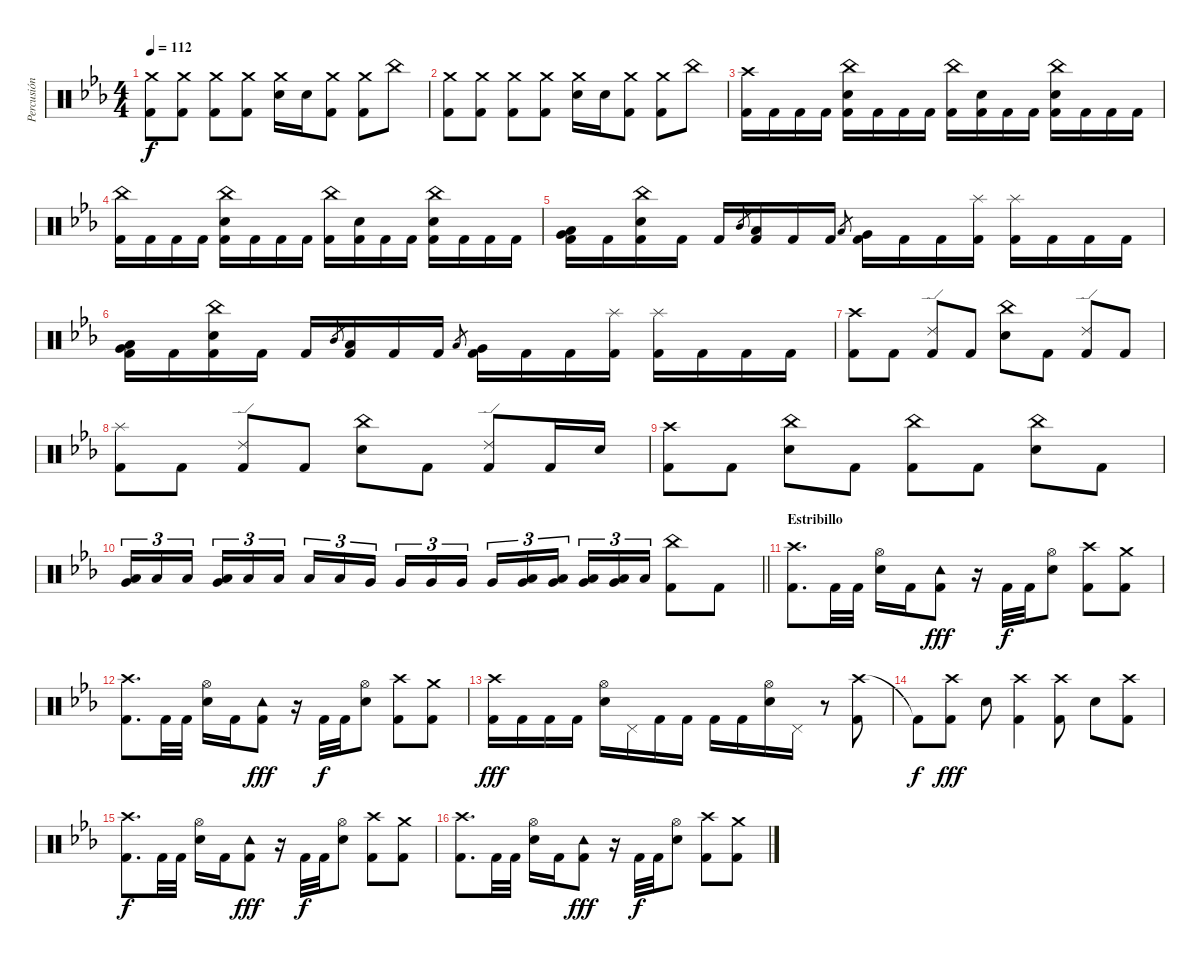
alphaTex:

\track ("Percusión" "Percusión") {instrument percussion}
\staff {score}
\articulation defaults
\ts (4 4)
\tempo 112
\clef neutral
\ks cminor
("Crash medium (hit)" "Kick (hit) 2").8{dy f} ("Crash medium (hit)" "Kick (hit) 2").8 ("Crash medium (hit)" "Kick (hit) 2").8 ("Crash medium (hit)" "Kick (hit) 2").8 ("Crash medium (hit)" "Snare (hit) 2").16 "Snare (hit) 2".16 ("Crash medium (hit)" "Kick (hit) 2").8 ("Crash medium (hit)" "Kick (hit) 2").8 "China (hit)".8 |
("Crash medium (hit)" "Kick (hit) 2").8 ("Crash medium (hit)" "Kick (hit) 2").8 ("Crash medium (hit)" "Kick (hit) 2").8 ("Crash medium (hit)" "Kick (hit) 2").8 ("Crash medium (hit)" "Snare (hit) 2").16 "Snare (hit) 2".16 ("Crash medium (hit)" "Kick (hit) 2").8 ("Crash medium (hit)" "Kick (hit) 2").8 "China (hit)".8 |
("Crash high (hit)" "Kick (hit) 2").16 "Kick (hit) 2".16 "Kick (hit) 2".16 "Kick (hit) 2".16 ("China (hit)" "Snare (hit) 2" "Kick (hit) 2").16 "Kick (hit) 2".16 "Kick (hit) 2".16 "Kick (hit) 2".16 ("China (hit)" "Kick (hit) 2").16 ("Snare (hit) 2" "Kick (hit) 2").16 "Kick (hit) 2".16 "Kick (hit) 2".16 ("China (hit)" "Snare (hit) 2" "Kick (hit) 2").16 "Kick (hit) 2".16 "Kick (hit) 2".16 "Kick (hit) 2".16 |
("China (hit)" "Kick (hit) 2").16 "Kick (hit) 2".16 "Kick (hit) 2".16 "Kick (hit) 2".16 ("China (hit)" "Snare (hit) 2" "Kick (hit) 2").16 "Kick (hit) 2".16 "Kick (hit) 2".16 "Kick (hit) 2".16 ("China (hit)" "Kick (hit) 2").16 ("Snare (hit) 2" "Kick (hit) 2").16 "Kick (hit) 2".16 "Kick (hit) 2".16 ("China (hit)" "Snare (hit) 2" "Kick (hit) 2").16 "Kick (hit) 2".16 "Kick (hit) 2".16 "Kick (hit) 2".16 |
("Low Floor Tom (hit)" "Very Low Tom (hit)" "Kick (hit) 2").16 "Kick (hit) 2".16 ("China (hit)" "Snare (hit) 2" "Kick (hit) 2").16 "Kick (hit) 2".16 "Kick (hit) 2".16 "Mid Tom (hit)".8{gr} ("Low Tom (hit)" "Kick (hit) 2").16 "Kick (hit) 2".16 "Kick (hit) 2".16 "Low Tom (hit)".8{gr} ("Very Low Tom (hit)" "Kick (hit) 2").16 "Kick (hit) 2".16 "Kick (hit) 2".16 ("Splash (hit)" "Kick (hit) 2").16 ("Splash (hit)" "Kick (hit) 2").16 "Kick (hit) 2".16 "Kick (hit) 2".16 "Kick (hit) 2".16 |
("Low Floor Tom (hit)" "Very Low Tom (hit)" "Kick (hit) 2").16 "Kick (hit) 2".16 ("China (hit)" "Snare (hit) 2" "Kick (hit) 2").16 "Kick (hit) 2".16 "Kick (hit) 2".16 "Mid Tom (hit)".8{gr} ("Low Tom (hit)" "Kick (hit) 2").16 "Kick (hit) 2".16 "Kick (hit) 2".16 "Low Tom (hit)".8{gr} ("Very Low Tom (hit)" "Kick (hit) 2").16 "Kick (hit) 2".16 "Kick (hit) 2".16 ("Splash (hit)" "Kick (hit) 2").16 ("Splash (hit)" "Kick (hit) 2").16 "Kick (hit) 2".16 "Kick (hit) 2".16 "Kick (hit) 2".16 |
("Crash high (hit)" "Kick (hit) 2").8 "Kick (hit) 2".8 ("Ride (edge) 2" "Kick (hit) 2").8 "Kick (hit) 2".8 ("China (hit)" "Snare (hit) 2").8 "Kick (hit) 2".8 ("Ride (edge) 2" "Kick (hit) 2").8 "Kick (hit) 2".8 |
("Splash (hit)" "Kick (hit) 2").8 "Kick (hit) 2".8 ("Ride (edge) 2" "Kick (hit) 2").8 "Kick (hit) 2".8 ("China (hit)" "Snare (hit) 2").8 "Kick (hit) 2".8 ("Ride (edge) 2" "Kick (hit) 2").8 "Kick (hit) 2".16 "Snare (hit) 2".16 |
("Crash high (hit)" "Kick (hit) 2").8 "Kick (hit) 2".8 ("China (hit)" "Snare (hit) 2").8 "Kick (hit) 2".8 ("China (hit)" "Kick (hit) 2").8 "Kick (hit) 2".8 ("China (hit)" "Snare (hit) 2").8 "Kick (hit) 2".8 |
\barLineRight lightlight
("Very Low Tom (hit)" "Low Tom (hit)").16{tu (3 2)} "Low Tom (hit)".16{tu (3 2)} "Low Tom (hit)".16{tu (3 2) beam splitsecondary} ("Very Low Tom (hit)" "Low Tom (hit)").16{tu (3 2)} "Low Tom (hit)".16{tu (3 2)} "Low Tom (hit)".16{tu (3 2)} "Low Tom (hit)".16{tu (3 2)} "Low Tom (hit)".16{tu (3 2)} "Very Low Tom (hit)".16{tu (3 2) beam splitsecondary} "Very Low Tom (hit)".16{tu (3 2)} "Very Low Tom (hit)".16{tu (3 2)} "Very Low Tom (hit)".16{tu (3 2)} "Very Low Tom (hit)".16{tu (3 2)} ("Very Low Tom (hit)" "Low Floor Tom (hit)").16{tu (3 2)} ("Very Low Tom (hit)" "Low Floor Tom (hit)").16{tu (3 2) beam splitsecondary} ("Very Low Tom (hit)" "Low Floor Tom (hit)").16{tu (3 2)} ("Very Low Tom (hit)" "Low Floor Tom (hit)").16{tu (3 2)} "Low Floor Tom (hit)".16{tu (3 2)} ("China (hit)" "Kick (hit) 2").8 "Kick (hit) 2".8 |
\section ("" "Estribillo")
("Crash high (hit)" "Kick (hit) 2").8{d} "Kick (hit) 2".32 "Kick (hit) 2".32 ("Hi-Hat (open)" "Snare (hit) 2").16 "Kick (hit) 2".16 ("Tambourine (hit)" "Kick (hit) 2").8{dy fff} r.16 "Kick (hit) 2".32{dy f} "Kick (hit) 2".32 ("Hi-Hat (open)" "Snare (hit) 2").8 ("Crash high (hit)" "Kick (hit) 2").8 ("Crash medium (hit)" "Kick (hit) 2").8 |
("Crash high (hit)" "Kick (hit) 2").8{d} "Kick (hit) 2".32 "Kick (hit) 2".32 ("Hi-Hat (open)" "Snare (hit) 2").16 "Kick (hit) 2".16 ("Tambourine (hit)" "Kick (hit) 2").8{dy fff} r.16 "Kick (hit) 2".32{dy f} "Kick (hit) 2".32 ("Hi-Hat (open)" "Snare (hit) 2").8 ("Crash high (hit)" "Kick (hit) 2").8 ("Crash medium (hit)" "Kick (hit) 2").8 |
("Crash high (hit)" "Kick (hit) 2").16{dy fff} "Kick (hit) 2".16 "Kick (hit) 2".16 "Kick (hit) 2".16 ("Hi-Hat (open)" "Snare (hit) 2").16 "Pedal Hi-Hat (hit)".16 "Kick (hit) 2".16 "Kick (hit) 2".16 "Kick (hit) 2".16 "Kick (hit) 2".16 ("Hi-Hat (open)" "Snare (hit) 2").16 "Pedal Hi-Hat (hit)".16 r.8 ("Crash high (hit)" "Kick (hit) 2").8 |
"Kick (hit) 2"{t}.8{dy f} ("Crash high (hit)" "Kick (hit) 2").8{dy fff} "Snare (hit) 2".8 ("Crash high (hit)" "Kick (hit) 2").4 ("Crash high (hit)" "Kick (hit) 2").8 "Snare (hit) 2".8 ("Crash high (hit)" "Kick (hit) 2").8 |
("Crash high (hit)" "Kick (hit) 2").8{d dy f} "Kick (hit) 2".32 "Kick (hit) 2".32 ("Hi-Hat (open)" "Snare (hit) 2").16 "Kick (hit) 2".16 ("Tambourine (hit)" "Kick (hit) 2").8{dy fff} r.16 "Kick (hit) 2".32{dy f} "Kick (hit) 2".32 ("Hi-Hat (open)" "Snare (hit) 2").8 ("Crash high (hit)" "Kick (hit) 2").8 ("Crash medium (hit)" "Kick (hit) 2").8 |
("Crash high (hit)" "Kick (hit) 2").8{d} "Kick (hit) 2".32 "Kick (hit) 2".32 ("Hi-Hat (open)" "Snare (hit) 2").16 "Kick (hit) 2".16 ("Tambourine (hit)" "Kick (hit) 2").8{dy fff} r.16 "Kick (hit) 2".32{dy f} "Kick (hit) 2".32 ("Hi-Hat (open)" "Snare (hit) 2").8 ("Crash high (hit)" "Kick (hit) 2").8 ("Crash medium (hit)" "Kick (hit) 2").8
